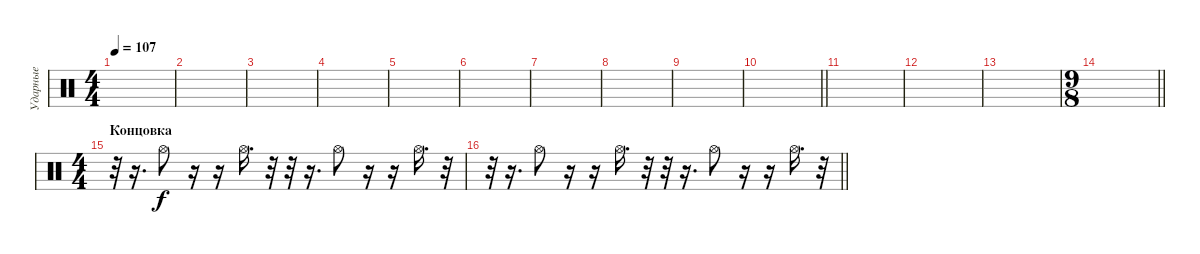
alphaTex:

\track ("Ударные" "Ударные") {solo instrument percussion}
\staff {score}
\articulation defaults
\ts (4 4)
\tempo 107
\clef neutral
\ks c
|
|
|
|
|
|
|
|
|
\barLineRight lightlight
|
|
|
|
\ts (9 8)
\barLineRight lightlight
|
\ts (4 4)
\section ("" "Концовка")
r.32 r.16{d} "Hi-Hat (open)".8 r.16 r.16 "Hi-Hat (open)".16{d} r.32 r.32 r.16{d} "Hi-Hat (open)".8 r.16 r.16 "Hi-Hat (open)".16{d} r.32 |
\barLineRight lightlight
r.32 r.16{d} "Hi-Hat (open)".8 r.16 r.16 "Hi-Hat (open)".16{d} r.32 r.32 r.16{d} "Hi-Hat (open)".8 r.16 r.16 "Hi-Hat (open)".16{d} r.32
